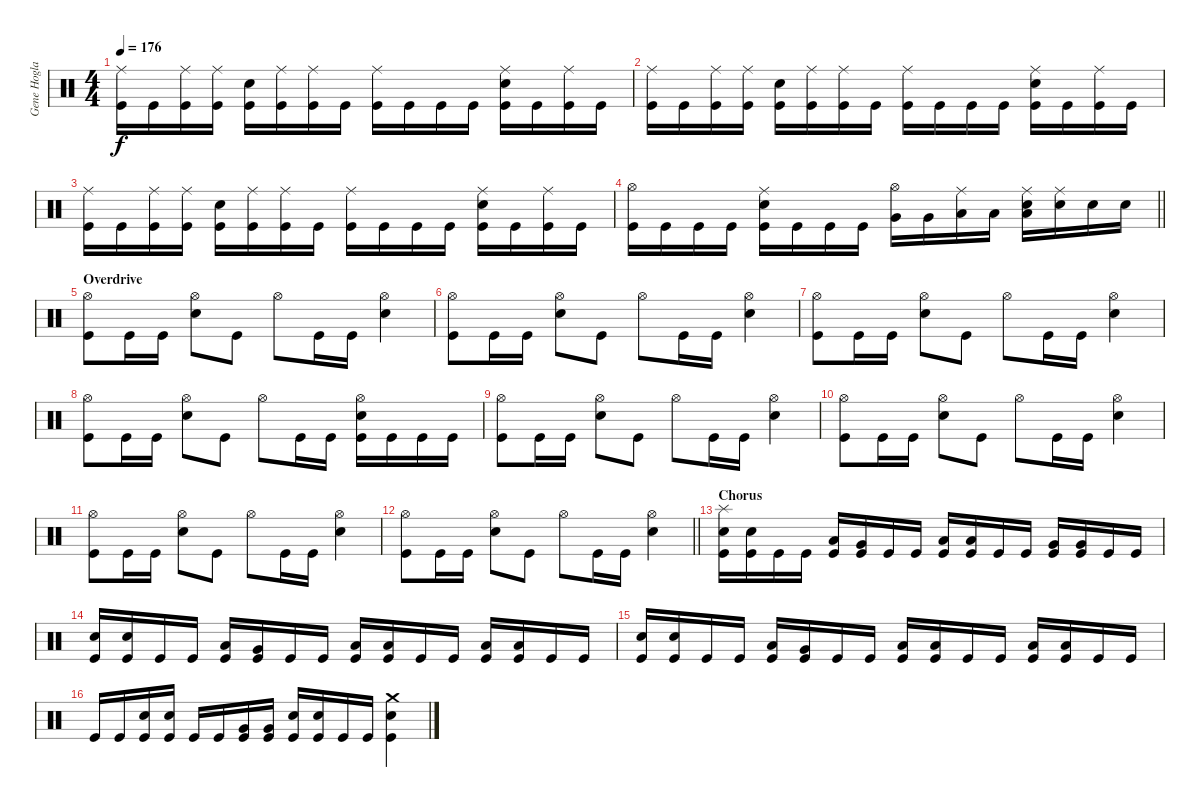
\track ("Gene Hoglan " "Gene Hogla") {instrument percussion}
\staff {score}
\articulation defaults
\ts (4 4)
\tempo 176
\clef neutral
\ks c
("Ride (middle)" "Kick (hit)").16{dy f} "Kick (hit)".16 ("Ride (middle)" "Kick (hit)").16 ("Ride (middle)" "Kick (hit)").16 ("Snare (hit) 2" "Kick (hit)").16 ("Ride (middle)" "Kick (hit)").16 ("Ride (middle)" "Kick (hit)").16 "Kick (hit)".16 ("Ride (middle)" "Kick (hit)").16 "Kick (hit)".16 "Kick (hit)".16 "Kick (hit)".16 ("Ride (middle)" "Snare (hit) 2" "Kick (hit)").16 "Kick (hit)".16 ("Ride (middle)" "Kick (hit)").16 "Kick (hit)".16 |
("Ride (middle)" "Kick (hit)").16 "Kick (hit)".16 ("Ride (middle)" "Kick (hit)").16 ("Ride (middle)" "Kick (hit)").16 ("Snare (hit) 2" "Kick (hit)").16 ("Ride (middle)" "Kick (hit)").16 ("Ride (middle)" "Kick (hit)").16 "Kick (hit)".16 ("Ride (middle)" "Kick (hit)").16 "Kick (hit)".16 "Kick (hit)".16 "Kick (hit)".16 ("Ride (middle)" "Snare (hit) 2" "Kick (hit)").16 "Kick (hit)".16 ("Ride (middle)" "Kick (hit)").16 "Kick (hit)".16 |
("Ride (middle)" "Kick (hit)").16 "Kick (hit)".16 ("Ride (middle)" "Kick (hit)").16 ("Ride (middle)" "Kick (hit)").16 ("Snare (hit) 2" "Kick (hit)").16 ("Ride (middle)" "Kick (hit)").16 ("Ride (middle)" "Kick (hit)").16 "Kick (hit)".16 ("Ride (middle)" "Kick (hit)").16 "Kick (hit)".16 "Kick (hit)".16 "Kick (hit)".16 ("Ride (middle)" "Snare (hit) 2" "Kick (hit)").16 "Kick (hit)".16 ("Ride (middle)" "Kick (hit)").16 "Kick (hit)".16 |
\barLineRight lightlight
("Hi-Hat (open)" "Kick (hit)").16 "Kick (hit)".16 "Kick (hit)".16 "Kick (hit)".16 ("Ride (middle)" "Snare (hit) 2" "Kick (hit)").16 "Kick (hit)".16 "Kick (hit)".16 "Kick (hit)".16 ("Hi-Hat (open)" "Very Low Tom (hit)").16 "Very Low Tom (hit)".16 ("Ride (middle)" "Low Floor Tom (hit)").16 "Low Floor Tom (hit)".16 ("Ride (middle)" "Snare (hit) 2" "Low Floor Tom (hit)").16 ("Ride (middle)" "Snare (hit) 2").16 "Snare (hit) 2".16 "Snare (hit) 2".16 |
\section ("" "Overdrive")
("Hi-Hat (open)" "Kick (hit)").8 "Kick (hit)".16 "Kick (hit)".16 ("Hi-Hat (open)" "Snare (hit) 2").8 "Kick (hit)".8 "Hi-Hat (open)".8 "Kick (hit)".16 "Kick (hit)".16 ("Hi-Hat (open)" "Snare (hit) 2").4 |
("Hi-Hat (open)" "Kick (hit)").8 "Kick (hit)".16 "Kick (hit)".16 ("Hi-Hat (open)" "Snare (hit) 2").8 "Kick (hit)".8 "Hi-Hat (open)".8 "Kick (hit)".16 "Kick (hit)".16 ("Hi-Hat (open)" "Snare (hit) 2").4 |
("Hi-Hat (open)" "Kick (hit)").8 "Kick (hit)".16 "Kick (hit)".16 ("Hi-Hat (open)" "Snare (hit) 2").8 "Kick (hit)".8 "Hi-Hat (open)".8 "Kick (hit)".16 "Kick (hit)".16 ("Hi-Hat (open)" "Snare (hit) 2").4 |
("Hi-Hat (open)" "Kick (hit)").8 "Kick (hit)".16 "Kick (hit)".16 ("Hi-Hat (open)" "Snare (hit) 2").8 "Kick (hit)".8 "Hi-Hat (open)".8 "Kick (hit)".16 "Kick (hit)".16 ("Hi-Hat (open)" "Snare (hit) 2" "Kick (hit)").16 "Kick (hit)".16 "Kick (hit)".16 "Kick (hit)".16 |
("Hi-Hat (open)" "Kick (hit)").8 "Kick (hit)".16 "Kick (hit)".16 ("Hi-Hat (open)" "Snare (hit) 2").8 "Kick (hit)".8 "Hi-Hat (open)".8 "Kick (hit)".16 "Kick (hit)".16 ("Hi-Hat (open)" "Snare (hit) 2").4 |
("Hi-Hat (open)" "Kick (hit)").8 "Kick (hit)".16 "Kick (hit)".16 ("Hi-Hat (open)" "Snare (hit) 2").8 "Kick (hit)".8 "Hi-Hat (open)".8 "Kick (hit)".16 "Kick (hit)".16 ("Hi-Hat (open)" "Snare (hit) 2").4 |
("Hi-Hat (open)" "Kick (hit)").8 "Kick (hit)".16 "Kick (hit)".16 ("Hi-Hat (open)" "Snare (hit) 2").8 "Kick (hit)".8 "Hi-Hat (open)".8 "Kick (hit)".16 "Kick (hit)".16 ("Hi-Hat (open)" "Snare (hit) 2").4 |
\barLineRight lightlight
("Hi-Hat (open)" "Kick (hit)").8 "Kick (hit)".16 "Kick (hit)".16 ("Hi-Hat (open)" "Snare (hit) 2").8 "Kick (hit)".8 "Hi-Hat (open)".8 "Kick (hit)".16 "Kick (hit)".16 ("Hi-Hat (open)" "Snare (hit) 2").4 |
\section ("" "Chorus")
("Splash (hit)" "Snare (hit) 2" "Kick (hit)").16 ("Snare (hit) 2" "Kick (hit)").16 "Kick (hit)".16 "Kick (hit)".16 ("Low Tom (hit)" "Kick (hit)").16 ("Very Low Tom (hit)" "Kick (hit)").16 "Kick (hit)".16 "Kick (hit)".16 ("Low Tom (hit)" "Kick (hit)").16 ("Low Tom (hit)" "Kick (hit)").16 "Kick (hit)".16 "Kick (hit)".16 ("Very Low Tom (hit)" "Kick (hit)").16 ("Very Low Tom (hit)" "Kick (hit)").16 "Kick (hit)".16 "Kick (hit)".16 |
("Snare (hit) 2" "Kick (hit)").16 ("Snare (hit) 2" "Kick (hit)").16 "Kick (hit)".16 "Kick (hit)".16 ("Low Tom (hit)" "Kick (hit)").16 ("Very Low Tom (hit)" "Kick (hit)").16 "Kick (hit)".16 "Kick (hit)".16 ("Low Tom (hit)" "Kick (hit)").16 ("Low Tom (hit)" "Kick (hit)").16 "Kick (hit)".16 "Kick (hit)".16 ("Low Floor Tom (hit)" "Kick (hit)").16 ("Low Floor Tom (hit)" "Kick (hit)").16 "Kick (hit)".16 "Kick (hit)".16 |
("Snare (hit) 2" "Kick (hit)").16 ("Snare (hit) 2" "Kick (hit)").16 "Kick (hit)".16 "Kick (hit)".16 ("Low Tom (hit)" "Kick (hit)").16 ("Very Low Tom (hit)" "Kick (hit)").16 "Kick (hit)".16 "Kick (hit)".16 ("Low Tom (hit)" "Kick (hit)").16 ("Low Tom (hit)" "Kick (hit)").16 "Kick (hit)".16 "Kick (hit)".16 ("Low Floor Tom (hit)" "Kick (hit)").16 ("Low Floor Tom (hit)" "Kick (hit)").16 "Kick (hit)".16 "Kick (hit)".16 |
"Kick (hit)".16 "Kick (hit)".16 ("Snare (hit) 2" "Kick (hit)").16 ("Snare (hit) 2" "Kick (hit)").16 "Kick (hit)".16 "Kick (hit)".16 ("Very Low Tom (hit)" "Kick (hit)").16 ("Very Low Tom (hit)" "Kick (hit)").16 ("Snare (hit) 2" "Kick (hit)").16 ("Snare (hit) 2" "Kick (hit)").16 "Kick (hit)".16 "Kick (hit)".16 ("Crash medium (hit)" "Snare (hit) 2" "Kick (hit)").4
